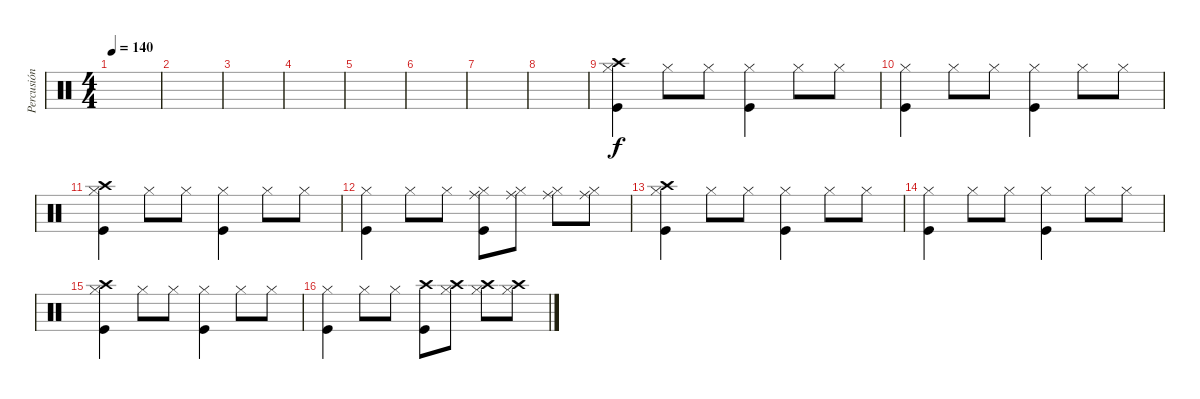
\track ("Percusión" "Percusión") {instrument percussion}
\staff {score}
\articulation defaults
\ts (4 4)
\tempo 140
\clef neutral
\ks c
|
|
|
|
|
|
|
|
("Crash high (hit)" "Hi-Hat (closed)" "Kick (hit)").4 "Hi-Hat (closed)".8 "Hi-Hat (closed)".8 ("Hi-Hat (closed)" "Kick (hit)").4 "Hi-Hat (closed)".8 "Hi-Hat (closed)".8 |
("Hi-Hat (closed)" "Kick (hit)").4 "Hi-Hat (closed)".8 "Hi-Hat (closed)".8 ("Hi-Hat (closed)" "Kick (hit)").4 "Hi-Hat (closed)".8 "Hi-Hat (closed)".8 |
("Crash high (hit)" "Hi-Hat (closed)" "Kick (hit)").4 "Hi-Hat (closed)".8 "Hi-Hat (closed)".8 ("Hi-Hat (closed)" "Kick (hit)").4 "Hi-Hat (closed)".8 "Hi-Hat (closed)".8 |
("Hi-Hat (closed)" "Kick (hit)").4 "Hi-Hat (closed)".8 "Hi-Hat (closed)".8 ("Ride (middle)" "Hi-Hat (closed)" "Kick (hit)").8 ("Ride (middle)" "Hi-Hat (closed)").8 ("Ride (middle)" "Hi-Hat (closed)").8 ("Ride (middle)" "Hi-Hat (closed)").8 |
("Crash high (hit)" "Hi-Hat (closed)" "Kick (hit)").4 "Hi-Hat (closed)".8 "Hi-Hat (closed)".8 ("Hi-Hat (closed)" "Kick (hit)").4 "Hi-Hat (closed)".8 "Hi-Hat (closed)".8 |
("Hi-Hat (closed)" "Kick (hit)").4 "Hi-Hat (closed)".8 "Hi-Hat (closed)".8 ("Hi-Hat (closed)" "Kick (hit)").4 "Hi-Hat (closed)".8 "Hi-Hat (closed)".8 |
("Crash high (hit)" "Hi-Hat (closed)" "Kick (hit)").4 "Hi-Hat (closed)".8 "Hi-Hat (closed)".8 ("Hi-Hat (closed)" "Kick (hit)").4 "Hi-Hat (closed)".8 "Hi-Hat (closed)".8 |
("Hi-Hat (closed)" "Kick (hit)").4 "Hi-Hat (closed)".8 "Hi-Hat (closed)".8 ("Crash high (hit)" "Kick (hit)").8 ("Crash high (hit)" "Hi-Hat (closed)").8 ("Crash high (hit)" "Hi-Hat (closed)").8 ("Hi-Hat (closed)" "Crash high (hit)").8
